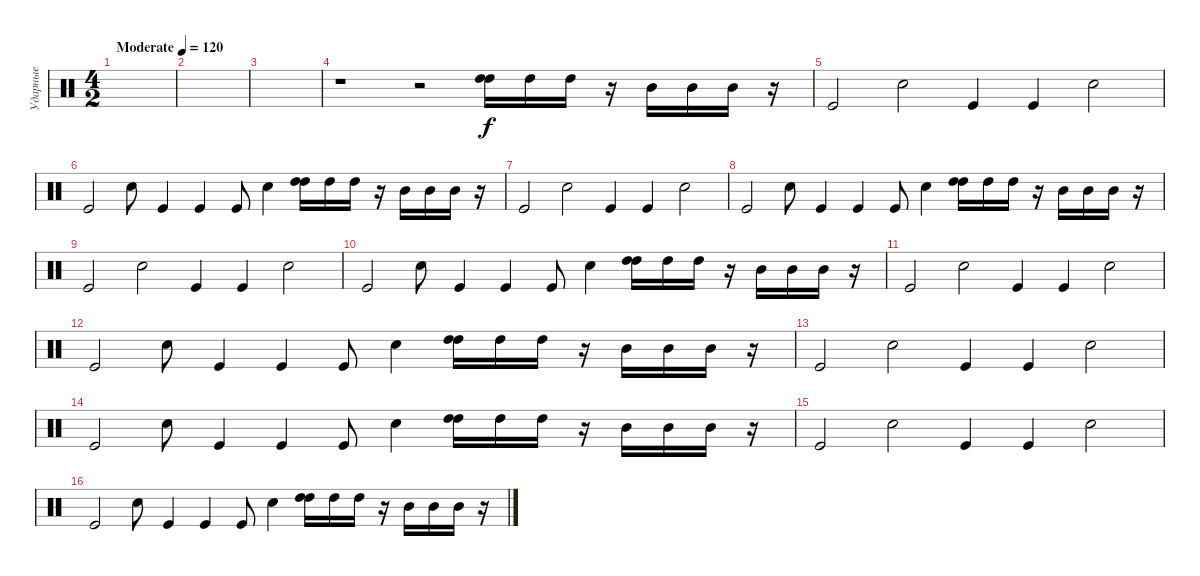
\track ("Ударные" "Ударные") {instrument percussion}
\staff {score}
\articulation defaults
\ts (4 2)
\tempo (120 "Moderate")
\clef neutral
\ks c
|
|
|
r.1 r.2 ("High Tom (hit)" "High Tom (hit)").16 "High Tom (hit)".16 "High Tom (hit)".16 r.16 "Mid Tom (hit)".16 "Mid Tom (hit)".16 "Mid Tom (hit)".16 r.16 |
"Kick (hit)".2 "Snare (hit) 2".2 "Kick (hit)".4 "Kick (hit)".4 "Snare (hit) 2".2 |
"Kick (hit)".2 "Snare (hit) 2".8 "Kick (hit)".4 "Kick (hit)".4 "Kick (hit)".8 "Snare (hit) 2".4 ("High Tom (hit)" "High Tom (hit)").16 "High Tom (hit)".16 "High Tom (hit)".16 r.16 "Mid Tom (hit)".16 "Mid Tom (hit)".16 "Mid Tom (hit)".16 r.16 |
"Kick (hit)".2 "Snare (hit) 2".2 "Kick (hit)".4 "Kick (hit)".4 "Snare (hit) 2".2 |
"Kick (hit)".2 "Snare (hit) 2".8 "Kick (hit)".4 "Kick (hit)".4 "Kick (hit)".8 "Snare (hit) 2".4 ("High Tom (hit)" "High Tom (hit)").16 "High Tom (hit)".16 "High Tom (hit)".16 r.16 "Mid Tom (hit)".16 "Mid Tom (hit)".16 "Mid Tom (hit)".16 r.16 |
"Kick (hit)".2 "Snare (hit) 2".2 "Kick (hit)".4 "Kick (hit)".4 "Snare (hit) 2".2 |
"Kick (hit)".2 "Snare (hit) 2".8 "Kick (hit)".4 "Kick (hit)".4 "Kick (hit)".8 "Snare (hit) 2".4 ("High Tom (hit)" "High Tom (hit)").16 "High Tom (hit)".16 "High Tom (hit)".16 r.16 "Mid Tom (hit)".16 "Mid Tom (hit)".16 "Mid Tom (hit)".16 r.16 |
"Kick (hit)".2 "Snare (hit) 2".2 "Kick (hit)".4 "Kick (hit)".4 "Snare (hit) 2".2 |
"Kick (hit)".2 "Snare (hit) 2".8 "Kick (hit)".4 "Kick (hit)".4 "Kick (hit)".8 "Snare (hit) 2".4 ("High Tom (hit)" "High Tom (hit)").16 "High Tom (hit)".16 "High Tom (hit)".16 r.16 "Mid Tom (hit)".16 "Mid Tom (hit)".16 "Mid Tom (hit)".16 r.16 |
"Kick (hit)".2 "Snare (hit) 2".2 "Kick (hit)".4 "Kick (hit)".4 "Snare (hit) 2".2 |
"Kick (hit)".2 "Snare (hit) 2".8 "Kick (hit)".4 "Kick (hit)".4 "Kick (hit)".8 "Snare (hit) 2".4 ("High Tom (hit)" "High Tom (hit)").16 "High Tom (hit)".16 "High Tom (hit)".16 r.16 "Mid Tom (hit)".16 "Mid Tom (hit)".16 "Mid Tom (hit)".16 r.16 |
"Kick (hit)".2 "Snare (hit) 2".2 "Kick (hit)".4 "Kick (hit)".4 "Snare (hit) 2".2 |
"Kick (hit)".2 "Snare (hit) 2".8 "Kick (hit)".4 "Kick (hit)".4 "Kick (hit)".8 "Snare (hit) 2".4 ("High Tom (hit)" "High Tom (hit)").16 "High Tom (hit)".16 "High Tom (hit)".16 r.16 "Mid Tom (hit)".16 "Mid Tom (hit)".16 "Mid Tom (hit)".16 r.16
